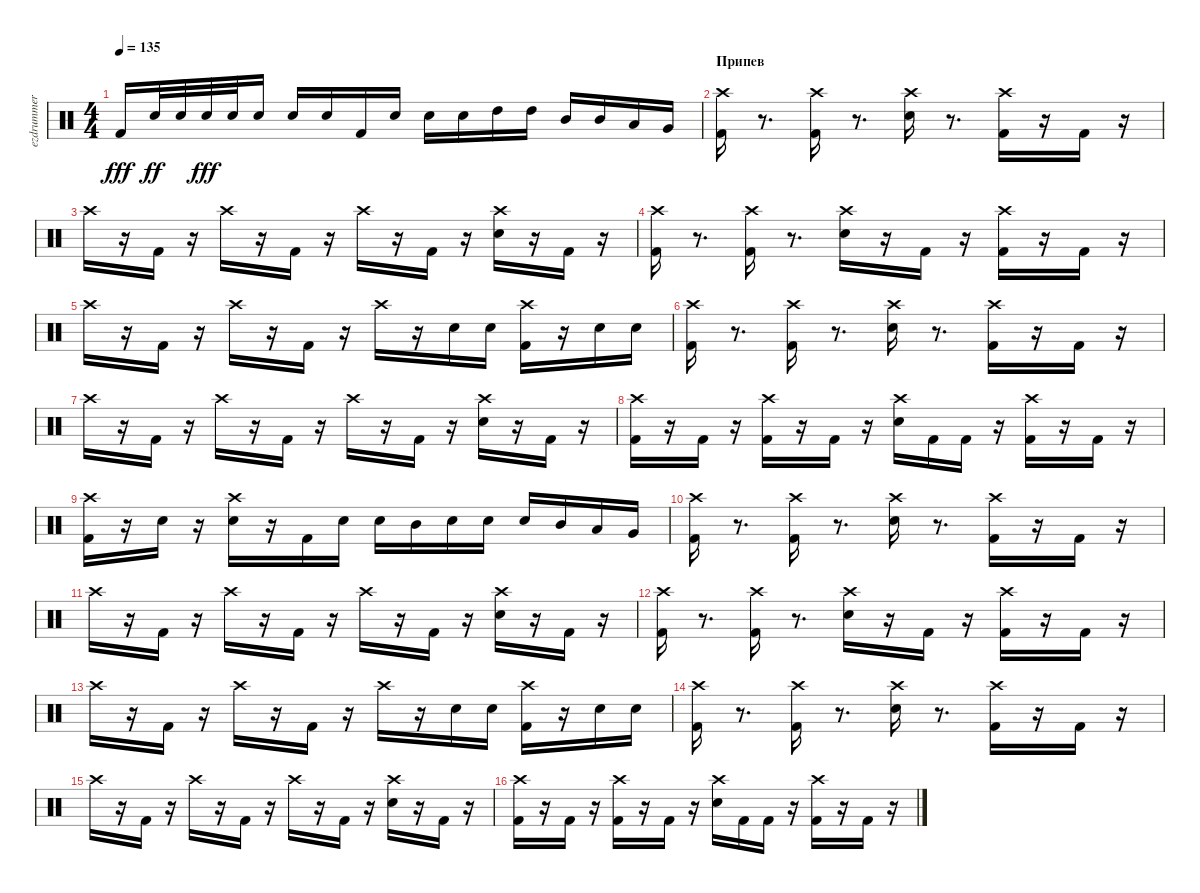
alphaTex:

\track ("ezdrummer 01" "ezdrummer ") {instrument percussion}
\staff {score}
\articulation defaults
\ts (4 4)
\tempo 135
\clef neutral
\ks c "Kick (hit) 2".16{dy fff} "Snare (hit) 2".32{dy ff} "Snare (hit) 2".32 "Snare (hit) 2".32{dy fff} "Snare (hit) 2".32 "Snare (hit) 2".16 "Snare (hit) 2".16 "Snare (hit) 2".16 "Kick (hit) 2".16 "Snare (hit) 2".16 "Snare (hit) 2".16 "Snare (hit) 2".16 "High Tom (hit)".16 "High Tom (hit)".16 "Mid Tom (hit)".16 "Mid Tom (hit)".16 "Low Tom (hit)".16 "Very Low Tom (hit)".16
|
\section ("" "Припев")
("Kick (hit) 2" "Crash high (hit)").16 r.8{d} ("Kick (hit) 2" "Crash high (hit)").16 r.8{d} ("Snare (hit) 2" "Crash high (hit)").16 r.8{d} ("Kick (hit) 2" "Crash high (hit)").16 r.16 "Kick (hit) 2".16 r.16 |
"Crash high (hit)".16 r.16 "Kick (hit) 2".16 r.16 "Crash high (hit)".16 r.16 "Kick (hit) 2".16 r.16 "Crash high (hit)".16 r.16 "Kick (hit) 2".16 r.16 ("Snare (hit) 2" "Crash high (hit)").16 r.16 "Kick (hit) 2".16 r.16 |
("Kick (hit) 2" "Crash high (hit)").16 r.8{d} ("Kick (hit) 2" "Crash high (hit)").16 r.8{d} ("Snare (hit) 2" "Crash high (hit)").16 r.16 "Kick (hit) 2".16 r.16 ("Kick (hit) 2" "Crash high (hit)").16 r.16 "Kick (hit) 2".16 r.16 |
"Crash high (hit)".16 r.16 "Kick (hit) 2".16 r.16 "Crash high (hit)".16 r.16 "Kick (hit) 2".16 r.16 "Crash high (hit)".16 r.16 "Snare (hit) 2".16 "Snare (hit) 2".16 ("Kick (hit) 2" "Crash high (hit)").16 r.16 "Snare (hit) 2".16 "Snare (hit) 2".16 |
("Kick (hit) 2" "Crash high (hit)").16 r.8{d} ("Kick (hit) 2" "Crash high (hit)").16 r.8{d} ("Snare (hit) 2" "Crash high (hit)").16 r.8{d} ("Kick (hit) 2" "Crash high (hit)").16 r.16 "Kick (hit) 2".16 r.16 |
"Crash high (hit)".16 r.16 "Kick (hit) 2".16 r.16 "Crash high (hit)".16 r.16 "Kick (hit) 2".16 r.16 "Crash high (hit)".16 r.16 "Kick (hit) 2".16 r.16 ("Snare (hit) 2" "Crash high (hit)").16 r.16 "Kick (hit) 2".16 r.16 |
("Kick (hit) 2" "Crash high (hit)").16 r.16 "Kick (hit) 2".16 r.16 ("Kick (hit) 2" "Crash high (hit)").16 r.16 "Kick (hit) 2".16 r.16 ("Snare (hit) 2" "Crash high (hit)").16 "Kick (hit) 2".16 "Kick (hit) 2".16 r.16 ("Kick (hit) 2" "Crash high (hit)").16 r.16 "Kick (hit) 2".16 r.16 |
("Kick (hit) 2" "Crash high (hit)").16 r.16 "Snare (hit) 2".16 r.16 ("Snare (hit) 2" "Crash high (hit)").16 r.16 "Kick (hit) 2".16 "Snare (hit) 2".16 "Snare (hit) 2".16 "Mid Tom (hit)".16 "Snare (hit) 2".16 "Snare (hit) 2".16 "Snare (hit) 2".16 "Mid Tom (hit)".16 "Low Tom (hit)".16 "Very Low Tom (hit)".16 |
("Kick (hit) 2" "Crash high (hit)").16 r.8{d} ("Kick (hit) 2" "Crash high (hit)").16 r.8{d} ("Snare (hit) 2" "Crash high (hit)").16 r.8{d} ("Kick (hit) 2" "Crash high (hit)").16 r.16 "Kick (hit) 2".16 r.16 |
"Crash high (hit)".16 r.16 "Kick (hit) 2".16 r.16 "Crash high (hit)".16 r.16 "Kick (hit) 2".16 r.16 "Crash high (hit)".16 r.16 "Kick (hit) 2".16 r.16 ("Snare (hit) 2" "Crash high (hit)").16 r.16 "Kick (hit) 2".16 r.16 |
("Kick (hit) 2" "Crash high (hit)").16 r.8{d} ("Kick (hit) 2" "Crash high (hit)").16 r.8{d} ("Snare (hit) 2" "Crash high (hit)").16 r.16 "Kick (hit) 2".16 r.16 ("Kick (hit) 2" "Crash high (hit)").16 r.16 "Kick (hit) 2".16 r.16 |
"Crash high (hit)".16 r.16 "Kick (hit) 2".16 r.16 "Crash high (hit)".16 r.16 "Kick (hit) 2".16 r.16 "Crash high (hit)".16 r.16 "Snare (hit) 2".16 "Snare (hit) 2".16 ("Kick (hit) 2" "Crash high (hit)").16 r.16 "Snare (hit) 2".16 "Snare (hit) 2".16 |
("Kick (hit) 2" "Crash high (hit)").16 r.8{d} ("Kick (hit) 2" "Crash high (hit)").16 r.8{d} ("Snare (hit) 2" "Crash high (hit)").16 r.8{d} ("Kick (hit) 2" "Crash high (hit)").16 r.16 "Kick (hit) 2".16 r.16 |
"Crash high (hit)".16 r.16 "Kick (hit) 2".16 r.16 "Crash high (hit)".16 r.16 "Kick (hit) 2".16 r.16 "Crash high (hit)".16 r.16 "Kick (hit) 2".16 r.16 ("Snare (hit) 2" "Crash high (hit)").16 r.16 "Kick (hit) 2".16 r.16 |
("Kick (hit) 2" "Crash high (hit)").16 r.16 "Kick (hit) 2".16 r.16 ("Kick (hit) 2" "Crash high (hit)").16 r.16 "Kick (hit) 2".16 r.16 ("Snare (hit) 2" "Crash high (hit)").16 "Kick (hit) 2".16 "Kick (hit) 2".16 r.16 ("Kick (hit) 2" "Crash high (hit)").16 r.16 "Kick (hit) 2".16 r.16
